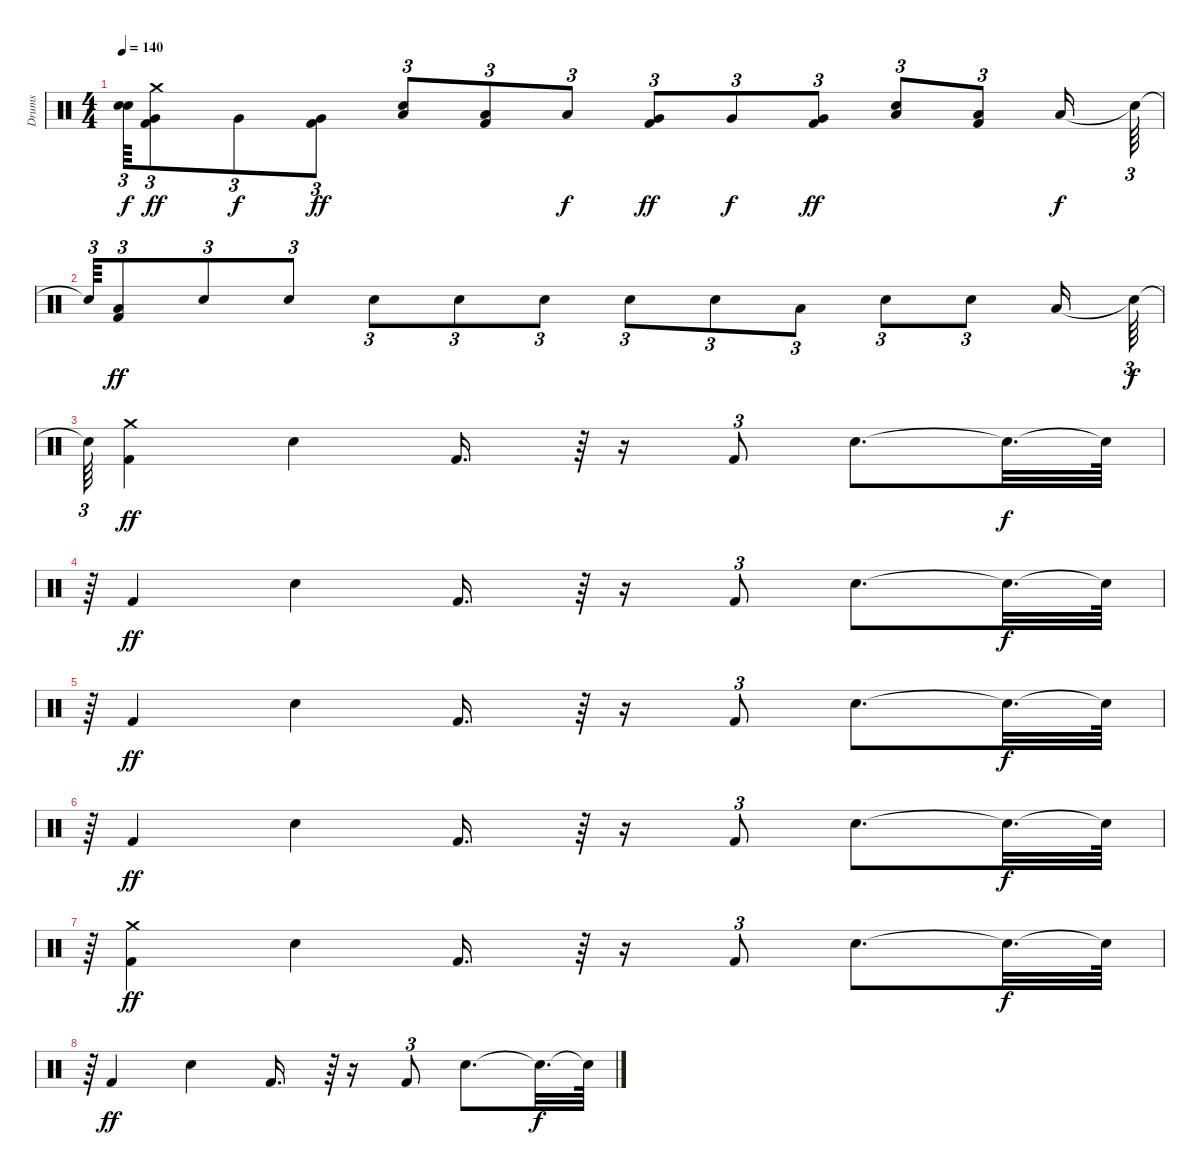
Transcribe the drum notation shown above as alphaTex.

\track ("Drums" "Drums") {instrument percussion}
\staff {score}
\articulation defaults
\ts (4 4)
\tempo 140
\clef neutral
\ks c
("Snare (hit)"{t} "Snare (hit)"{t}).64{tu (3 2) dy f} ("Kick (hit) 2" "Very Low Tom (hit)" "Crash medium (hit)").8{tu (3 2) dy ff} "Very Low Tom (hit)".8{tu (3 2) dy f} ("Kick (hit) 2" "Very Low Tom (hit)").8{tu (3 2) dy ff} ("Snare (hit) 2" "Low Tom (hit)").8{tu (3 2)} ("Kick (hit) 2" "Low Floor Tom (hit)").8{tu (3 2)} "Low Floor Tom (hit)".8{tu (3 2) dy f} ("Kick (hit) 2" "Very Low Tom (hit)").8{tu (3 2) dy ff} "Very Low Tom (hit)".8{tu (3 2) dy f} ("Kick (hit) 2" "Very Low Tom (hit)").8{tu (3 2) dy ff} ("Snare (hit) 2" "Low Tom (hit)").8{tu (3 2)} ("Kick (hit) 2" "Low Floor Tom (hit)").8{tu (3 2)} "Low Floor Tom (hit)".16{dy f} "Snare (hit)"{t}.64{tu (3 2)} |
"Snare (hit)"{t}.64{tu (3 2)} ("Kick (hit) 2" "Low Floor Tom (hit)").8{tu (3 2) dy ff} "Snare (hit) 2".8{tu (3 2)} "Snare (hit) 2".8{tu (3 2)} "Snare (hit) 2".8{tu (3 2)} "Snare (hit) 2".8{tu (3 2)} "Snare (hit) 2".8{tu (3 2)} "Snare (hit) 2".8{tu (3 2)} "Snare (hit) 2".8{tu (3 2)} "Low Tom (hit)".8{tu (3 2)} "Snare (hit) 2".8{tu (3 2)} "Snare (hit) 2".8{tu (3 2)} "Low Floor Tom (hit)".16 "Snare (hit)"{t}.64{tu (3 2) dy f} |
"Snare (hit)"{t}.64{tu (3 2)} ("Kick (hit) 2" "Crash medium (hit)").4{dy ff} "Snare (hit) 2".4 "Kick (hit) 2".16{d} r.64{tu (3 2)} r.16 "Kick (hit) 2".8{tu (3 2)} "Snare (hit) 2".8{d} "Snare (hit)"{t}.32{d dy f} "Snare (hit)"{t}.64 |
r.64{tu (3 2)} "Kick (hit) 2".4{dy ff} "Snare (hit) 2".4 "Kick (hit) 2".16{d} r.64{tu (3 2)} r.16 "Kick (hit) 2".8{tu (3 2)} "Snare (hit) 2".8{d} "Snare (hit)"{t}.32{d dy f} "Snare (hit)"{t}.64 |
r.64{tu (3 2)} "Kick (hit) 2".4{dy ff} "Snare (hit) 2".4 "Kick (hit) 2".16{d} r.64{tu (3 2)} r.16 "Kick (hit) 2".8{tu (3 2)} "Snare (hit) 2".8{d} "Snare (hit)"{t}.32{d dy f} "Snare (hit)"{t}.64 |
r.64{tu (3 2)} "Kick (hit) 2".4{dy ff} "Snare (hit) 2".4 "Kick (hit) 2".16{d} r.64{tu (3 2)} r.16 "Kick (hit) 2".8{tu (3 2)} "Snare (hit) 2".8{d} "Snare (hit)"{t}.32{d dy f} "Snare (hit)"{t}.64 |
r.64{tu (3 2)} ("Kick (hit) 2" "Crash medium (hit)").4{dy ff} "Snare (hit) 2".4 "Kick (hit) 2".16{d} r.64{tu (3 2)} r.16 "Kick (hit) 2".8{tu (3 2)} "Snare (hit) 2".8{d} "Snare (hit)"{t}.32{d dy f} "Snare (hit)"{t}.64 |
r.64{tu (3 2)} "Kick (hit) 2".4{dy ff} "Snare (hit) 2".4 "Kick (hit) 2".16{d} r.64{tu (3 2)} r.16 "Kick (hit) 2".8{tu (3 2)} "Snare (hit) 2".8{d} "Snare (hit)"{t}.32{d dy f} "Snare (hit)"{t}.64
